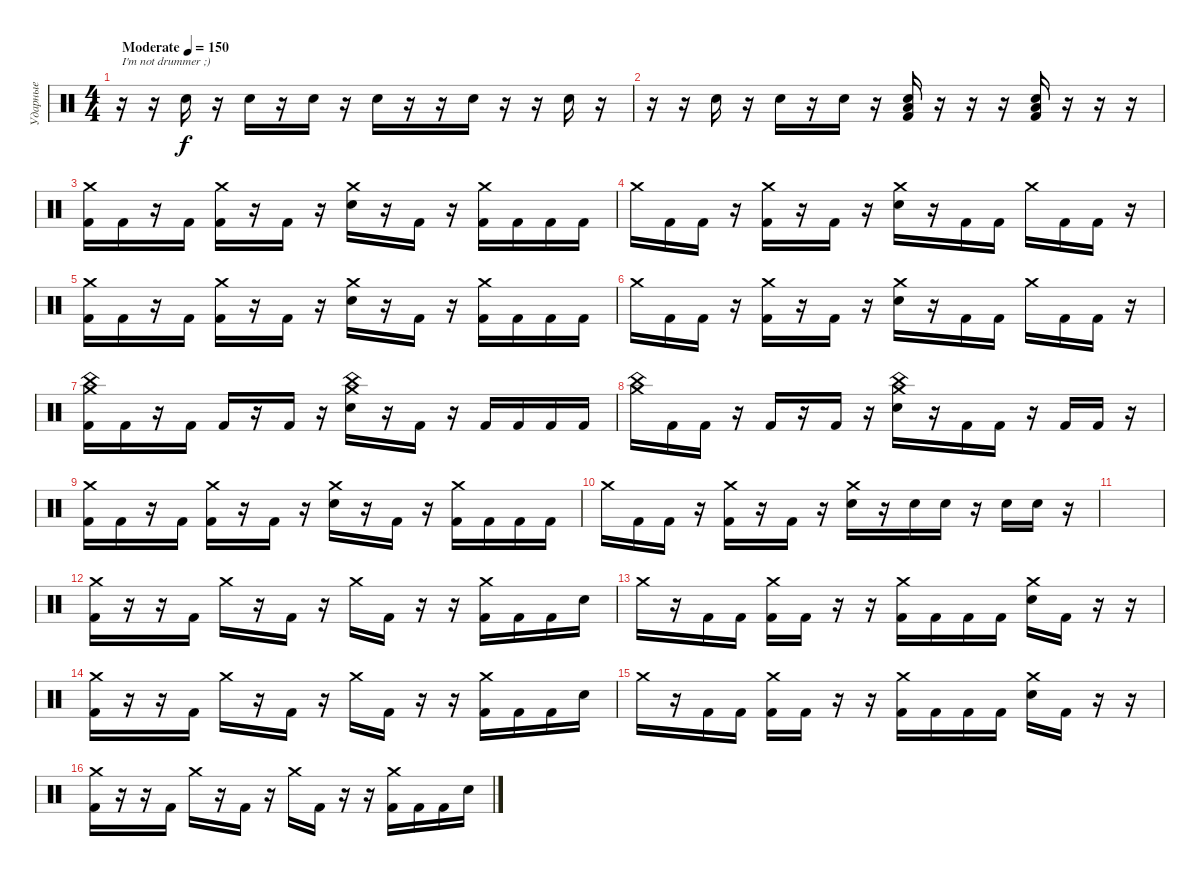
\track ("Ударные" "Ударные") {instrument percussion}
\staff {score}
\articulation defaults
\ts (4 4)
\tempo (150 "Moderate")
\clef neutral
\ks c
r.16{txt "I'm not drummer ;)" dy f} r.16 "Electric Snare (hit)".16 r.16 "Electric Snare (hit)".16 r.16 "Electric Snare (hit)".16 r.16 "Electric Snare (hit)".16 r.16 r.16 "Electric Snare (hit)".16 r.16 r.16 "Electric Snare (hit)".16 r.16 |
r.16 r.16 "Electric Snare (hit)".16 r.16 "Electric Snare (hit)".16 r.16 "Electric Snare (hit)".16 r.16 ("Low Floor Tom (hit)" "Kick (hit) 2" "Electric Snare (hit)").16 r.16 r.16 r.16 ("Low Floor Tom (hit)" "Kick (hit) 2" "Electric Snare (hit)").16 r.16 r.16 r.16 |
("Crash medium (hit)" "Kick (hit) 2").16 "Kick (hit) 2".16 r.16 "Kick (hit) 2".16 ("Crash medium (hit)" "Kick (hit) 2").16 r.16 "Kick (hit) 2".16 r.16 ("Crash medium (hit)" "Electric Snare (hit)").16 r.16 "Kick (hit) 2".16 r.16 ("Crash medium (hit)" "Kick (hit) 2").16 "Kick (hit) 2".16 "Kick (hit) 2".16 "Kick (hit) 2".16 |
"Crash medium (hit)".16 "Kick (hit) 2".16 "Kick (hit) 2".16 r.16 ("Crash medium (hit)" "Kick (hit) 2").16 r.16 "Kick (hit) 2".16 r.16 ("Crash medium (hit)" "Electric Snare (hit)").16 r.16 "Kick (hit) 2".16 "Kick (hit) 2".16 "Crash medium (hit)".16 "Kick (hit) 2".16 "Kick (hit) 2".16 r.16 |
("Crash medium (hit)" "Kick (hit) 2").16 "Kick (hit) 2".16 r.16 "Kick (hit) 2".16 ("Crash medium (hit)" "Kick (hit) 2").16 r.16 "Kick (hit) 2".16 r.16 ("Crash medium (hit)" "Electric Snare (hit)").16 r.16 "Kick (hit) 2".16 r.16 ("Crash medium (hit)" "Kick (hit) 2").16 "Kick (hit) 2".16 "Kick (hit) 2".16 "Kick (hit) 2".16 |
"Crash medium (hit)".16 "Kick (hit) 2".16 "Kick (hit) 2".16 r.16 ("Crash medium (hit)" "Kick (hit) 2").16 r.16 "Kick (hit) 2".16 r.16 ("Crash medium (hit)" "Electric Snare (hit)").16 r.16 "Kick (hit) 2".16 "Kick (hit) 2".16 "Crash medium (hit)".16 "Kick (hit) 2".16 "Kick (hit) 2".16 r.16 |
("Crash medium (hit)" "China (hit)" "Kick (hit) 2").16 "Kick (hit) 2".16 r.16 "Kick (hit) 2".16 "Kick (hit) 2".16 r.16 "Kick (hit) 2".16 r.16 ("Crash medium (hit)" "China (hit)" "Electric Snare (hit)").16 r.16 "Kick (hit) 2".16 r.16 "Kick (hit) 2".16 "Kick (hit) 2".16 "Kick (hit) 2".16 "Kick (hit) 2".16 |
("Crash medium (hit)" "China (hit)").16 "Kick (hit) 2".16 "Kick (hit) 2".16 r.16 "Kick (hit) 2".16 r.16 "Kick (hit) 2".16 r.16 ("Crash medium (hit)" "China (hit)" "Electric Snare (hit)").16 r.16 "Kick (hit) 2".16 "Kick (hit) 2".16 r.16 "Kick (hit) 2".16 "Kick (hit) 2".16 r.16 |
("Crash medium (hit)" "Kick (hit) 2").16 "Kick (hit) 2".16 r.16 "Kick (hit) 2".16 ("Crash medium (hit)" "Kick (hit) 2").16 r.16 "Kick (hit) 2".16 r.16 ("Crash medium (hit)" "Electric Snare (hit)").16 r.16 "Kick (hit) 2".16 r.16 ("Crash medium (hit)" "Kick (hit) 2").16 "Kick (hit) 2".16 "Kick (hit) 2".16 "Kick (hit) 2".16 |
"Crash medium (hit)".16 "Kick (hit) 2".16 "Kick (hit) 2".16 r.16 ("Crash medium (hit)" "Kick (hit) 2").16 r.16 "Kick (hit) 2".16 r.16 ("Crash medium (hit)" "Electric Snare (hit)").16 r.16 "Electric Snare (hit)".16 "Electric Snare (hit)".16 r.16 "Electric Snare (hit)".16 "Electric Snare (hit)".16 r.16 |
|
("Crash medium (hit)" "Kick (hit) 2").16 r.16 r.16 "Kick (hit) 2".16 "Crash medium (hit)".16 r.16 "Kick (hit) 2".16 r.16 "Crash medium (hit)".16 "Kick (hit) 2".16 r.16 r.16 ("Crash medium (hit)" "Kick (hit) 2").16 "Kick (hit) 2".16 "Kick (hit) 2".16 "Electric Snare (hit)".16 |
"Crash medium (hit)".16 r.16 "Kick (hit) 2".16 "Kick (hit) 2".16 ("Crash medium (hit)" "Kick (hit) 2").16 "Kick (hit) 2".16 r.16 r.16 ("Crash medium (hit)" "Kick (hit) 2").16 "Kick (hit) 2".16 "Kick (hit) 2".16 "Kick (hit) 2".16 ("Crash medium (hit)" "Electric Snare (hit)").16 "Kick (hit) 2".16 r.16 r.16 |
("Crash medium (hit)" "Kick (hit) 2").16 r.16 r.16 "Kick (hit) 2".16 "Crash medium (hit)".16 r.16 "Kick (hit) 2".16 r.16 "Crash medium (hit)".16 "Kick (hit) 2".16 r.16 r.16 ("Crash medium (hit)" "Kick (hit) 2").16 "Kick (hit) 2".16 "Kick (hit) 2".16 "Electric Snare (hit)".16 |
"Crash medium (hit)".16 r.16 "Kick (hit) 2".16 "Kick (hit) 2".16 ("Crash medium (hit)" "Kick (hit) 2").16 "Kick (hit) 2".16 r.16 r.16 ("Crash medium (hit)" "Kick (hit) 2").16 "Kick (hit) 2".16 "Kick (hit) 2".16 "Kick (hit) 2".16 ("Crash medium (hit)" "Electric Snare (hit)").16 "Kick (hit) 2".16 r.16 r.16 |
("Crash medium (hit)" "Kick (hit) 2").16 r.16 r.16 "Kick (hit) 2".16 "Crash medium (hit)".16 r.16 "Kick (hit) 2".16 r.16 "Crash medium (hit)".16 "Kick (hit) 2".16 r.16 r.16 ("Crash medium (hit)" "Kick (hit) 2").16 "Kick (hit) 2".16 "Kick (hit) 2".16 "Electric Snare (hit)".16
